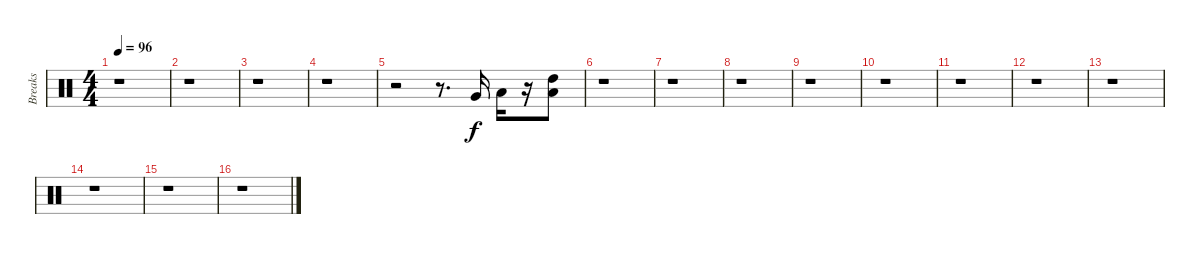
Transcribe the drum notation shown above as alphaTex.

\track ("Breaks" "Breaks") {instrument percussion}
\staff {score}
\articulation defaults
\ts (4 4)
\tempo 96
\clef neutral
\ks c
r.1{dy f} |
r.1 |
r.1 |
r.1 |
r.2 r.8{d} "Very Low Tom (hit)".16 "Low Floor Tom (hit)".16 r.16 ("Low Tom (hit)" "High Tom (hit)").8 |
r.1 |
r.1 |
r.1 |
r.1 |
r.1 |
r.1 |
r.1 |
r.1 |
r.1 |
r.1 |
r.1
